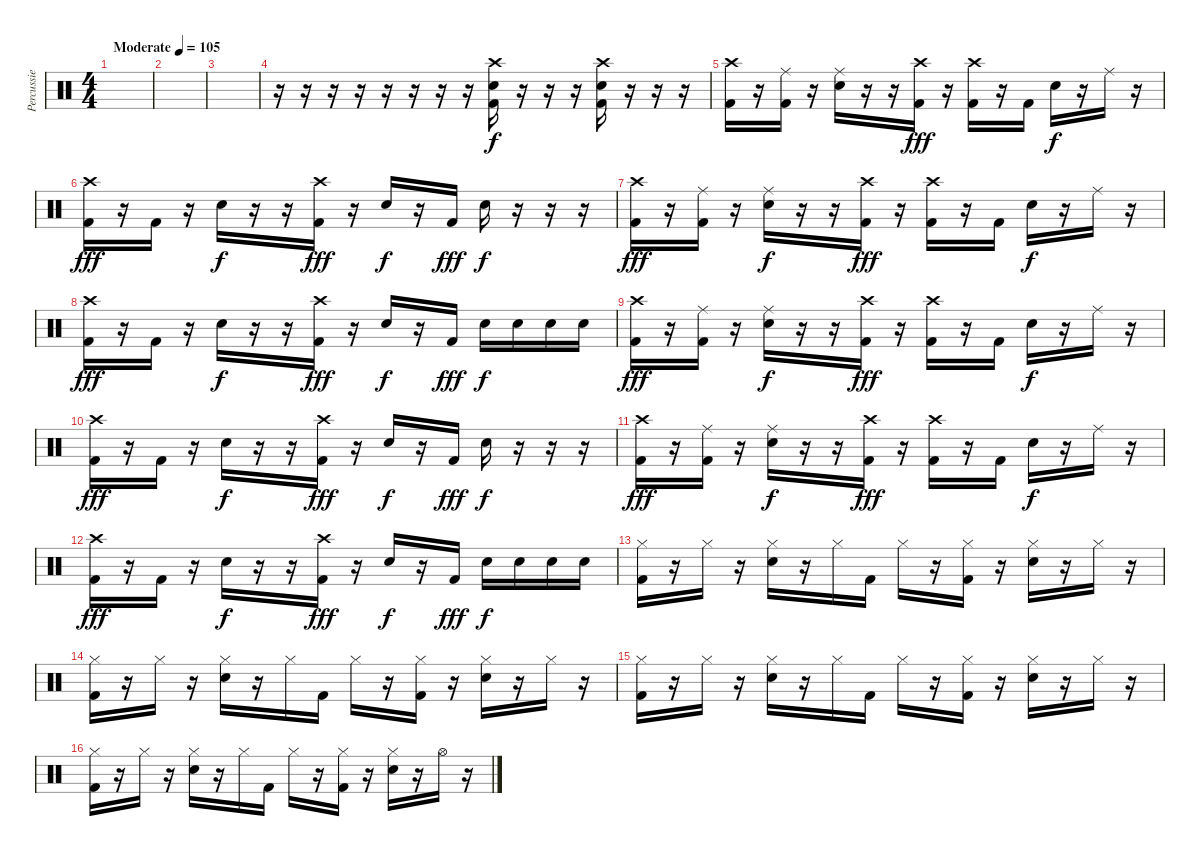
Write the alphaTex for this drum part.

\track ("Percussie" "Percussie") {instrument percussion}
\staff {score}
\articulation defaults
\ts (4 4)
\tempo (105 "Moderate")
\clef neutral
\ks c
|
|
|
r.16 r.16 r.16 r.16 r.16 r.16 r.16 r.16 ("Crash high (hit)" "Electric Snare (hit)" "Kick (hit) 2").16 r.16 r.16 r.16 ("Crash high (hit)" "Electric Snare (hit)" "Kick (hit) 2").16 r.16 r.16 r.16 |
("Crash high (hit)" "Kick (hit) 2").16 r.16 ("Ride (middle)" "Kick (hit) 2").16 r.16 ("Ride (middle)" "Electric Snare (hit)").16{dy f} r.16 r.16 ("Crash high (hit)" "Kick (hit) 2").16{dy fff} r.16 ("Crash high (hit)" "Kick (hit) 2").16 r.16 "Kick (hit) 2".16 "Electric Snare (hit)".16{dy f} r.16 "Ride (middle)".16 r.16 |
("Crash high (hit)" "Kick (hit) 2").16{dy fff} r.16 "Kick (hit) 2".16 r.16 "Electric Snare (hit)".16{dy f} r.16 r.16 ("Crash high (hit)" "Kick (hit) 2").16{dy fff} r.16 "Electric Snare (hit)".16{dy f} r.16 "Kick (hit) 2".16{dy fff} "Electric Snare (hit)".16{dy f} r.16 r.16 r.16 |
("Crash high (hit)" "Kick (hit) 2").16{dy fff} r.16 ("Ride (middle)" "Kick (hit) 2").16 r.16 ("Ride (middle)" "Electric Snare (hit)").16{dy f} r.16 r.16 ("Crash high (hit)" "Kick (hit) 2").16{dy fff} r.16 ("Crash high (hit)" "Kick (hit) 2").16 r.16 "Kick (hit) 2".16 "Electric Snare (hit)".16{dy f} r.16 "Ride (middle)".16 r.16 |
("Crash high (hit)" "Kick (hit) 2").16{dy fff} r.16 "Kick (hit) 2".16 r.16 "Electric Snare (hit)".16{dy f} r.16 r.16 ("Crash high (hit)" "Kick (hit) 2").16{dy fff} r.16 "Electric Snare (hit)".16{dy f} r.16 "Kick (hit) 2".16{dy fff} "Electric Snare (hit)".16{dy f} "Electric Snare (hit)".16 "Electric Snare (hit)".16 "Electric Snare (hit)".16 |
("Crash high (hit)" "Kick (hit) 2").16{dy fff} r.16 ("Ride (middle)" "Kick (hit) 2").16 r.16 ("Ride (middle)" "Electric Snare (hit)").16{dy f} r.16 r.16 ("Crash high (hit)" "Kick (hit) 2").16{dy fff} r.16 ("Crash high (hit)" "Kick (hit) 2").16 r.16 "Kick (hit) 2".16 "Electric Snare (hit)".16{dy f} r.16 "Ride (middle)".16 r.16 |
("Crash high (hit)" "Kick (hit) 2").16{dy fff} r.16 "Kick (hit) 2".16 r.16 "Electric Snare (hit)".16{dy f} r.16 r.16 ("Crash high (hit)" "Kick (hit) 2").16{dy fff} r.16 "Electric Snare (hit)".16{dy f} r.16 "Kick (hit) 2".16{dy fff} "Electric Snare (hit)".16{dy f} r.16 r.16 r.16 |
("Crash high (hit)" "Kick (hit) 2").16{dy fff} r.16 ("Ride (middle)" "Kick (hit) 2").16 r.16 ("Ride (middle)" "Electric Snare (hit)").16{dy f} r.16 r.16 ("Crash high (hit)" "Kick (hit) 2").16{dy fff} r.16 ("Crash high (hit)" "Kick (hit) 2").16 r.16 "Kick (hit) 2".16 "Electric Snare (hit)".16{dy f} r.16 "Ride (middle)".16 r.16 |
("Crash high (hit)" "Kick (hit) 2").16{dy fff} r.16 "Kick (hit) 2".16 r.16 "Electric Snare (hit)".16{dy f} r.16 r.16 ("Crash high (hit)" "Kick (hit) 2").16{dy fff} r.16 "Electric Snare (hit)".16{dy f} r.16 "Kick (hit) 2".16{dy fff} "Electric Snare (hit)".16{dy f} "Electric Snare (hit)".16 "Electric Snare (hit)".16 "Electric Snare (hit)".16 |
("Hi-Hat (closed)" "Kick (hit) 2").16 r.16 "Hi-Hat (closed)".16 r.16 ("Hi-Hat (closed)" "Electric Snare (hit)").16 r.16 "Hi-Hat (closed)".16 "Kick (hit) 2".16 "Hi-Hat (closed)".16 r.16 ("Hi-Hat (closed)" "Kick (hit) 2").16 r.16 ("Hi-Hat (closed)" "Electric Snare (hit)").16 r.16 "Hi-Hat (closed)".16 r.16 |
("Hi-Hat (closed)" "Kick (hit) 2").16 r.16 "Hi-Hat (closed)".16 r.16 ("Hi-Hat (closed)" "Electric Snare (hit)").16 r.16 "Hi-Hat (closed)".16 "Kick (hit) 2".16 "Hi-Hat (closed)".16 r.16 ("Hi-Hat (closed)" "Kick (hit) 2").16 r.16 ("Hi-Hat (closed)" "Electric Snare (hit)").16 r.16 "Hi-Hat (closed)".16 r.16 |
("Hi-Hat (closed)" "Kick (hit) 2").16 r.16 "Hi-Hat (closed)".16 r.16 ("Hi-Hat (closed)" "Electric Snare (hit)").16 r.16 "Hi-Hat (closed)".16 "Kick (hit) 2".16 "Hi-Hat (closed)".16 r.16 ("Hi-Hat (closed)" "Kick (hit) 2").16 r.16 ("Hi-Hat (closed)" "Electric Snare (hit)").16 r.16 "Hi-Hat (closed)".16 r.16 |
("Hi-Hat (closed)" "Kick (hit) 2").16 r.16 "Hi-Hat (closed)".16 r.16 ("Hi-Hat (closed)" "Electric Snare (hit)").16 r.16 "Hi-Hat (closed)".16 "Kick (hit) 2".16 "Hi-Hat (closed)".16 r.16 ("Hi-Hat (closed)" "Kick (hit) 2").16 r.16 ("Hi-Hat (closed)" "Electric Snare (hit)").16 r.16 "Hi-Hat (open)".16 r.16
